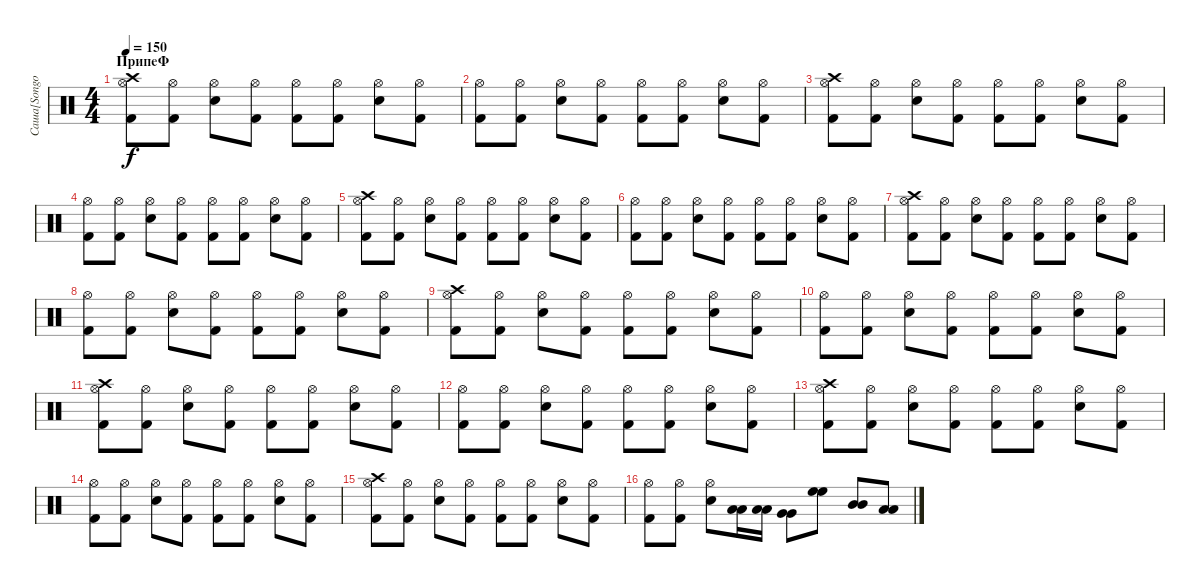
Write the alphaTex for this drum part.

\track ("Саша[Songo]" "Саша[Songo") {instrument percussion}
\staff {score}
\articulation defaults
\ts (4 4)
\section ("" "ПрипеФ")
\tempo 150
\clef neutral
\ks c
("Crash high (hit)" "Hi-Hat (open)" "Kick (hit) 2").8{dy f} ("Hi-Hat (open)" "Kick (hit) 2").8 ("Hi-Hat (open)" "Snare (hit) 2").8 ("Hi-Hat (open)" "Kick (hit) 2").8 ("Hi-Hat (open)" "Kick (hit) 2").8 ("Hi-Hat (open)" "Kick (hit) 2").8 ("Hi-Hat (open)" "Snare (hit) 2").8 ("Hi-Hat (open)" "Kick (hit) 2").8 |
("Hi-Hat (open)" "Kick (hit) 2").8 ("Hi-Hat (open)" "Kick (hit) 2").8 ("Hi-Hat (open)" "Snare (hit) 2").8 ("Hi-Hat (open)" "Kick (hit) 2").8 ("Hi-Hat (open)" "Kick (hit) 2").8 ("Hi-Hat (open)" "Kick (hit) 2").8 ("Hi-Hat (open)" "Snare (hit) 2").8 ("Hi-Hat (open)" "Kick (hit) 2").8 |
("Crash high (hit)" "Hi-Hat (open)" "Kick (hit) 2").8 ("Hi-Hat (open)" "Kick (hit) 2").8 ("Hi-Hat (open)" "Snare (hit) 2").8 ("Hi-Hat (open)" "Kick (hit) 2").8 ("Hi-Hat (open)" "Kick (hit) 2").8 ("Hi-Hat (open)" "Kick (hit) 2").8 ("Hi-Hat (open)" "Snare (hit) 2").8 ("Hi-Hat (open)" "Kick (hit) 2").8 |
("Hi-Hat (open)" "Kick (hit) 2").8 ("Hi-Hat (open)" "Kick (hit) 2").8 ("Hi-Hat (open)" "Snare (hit) 2").8 ("Hi-Hat (open)" "Kick (hit) 2").8 ("Hi-Hat (open)" "Kick (hit) 2").8 ("Hi-Hat (open)" "Kick (hit) 2").8 ("Hi-Hat (open)" "Snare (hit) 2").8 ("Hi-Hat (open)" "Kick (hit) 2").8 |
("Crash high (hit)" "Hi-Hat (open)" "Kick (hit) 2").8 ("Hi-Hat (open)" "Kick (hit) 2").8 ("Hi-Hat (open)" "Snare (hit) 2").8 ("Hi-Hat (open)" "Kick (hit) 2").8 ("Hi-Hat (open)" "Kick (hit) 2").8 ("Hi-Hat (open)" "Kick (hit) 2").8 ("Hi-Hat (open)" "Snare (hit) 2").8 ("Hi-Hat (open)" "Kick (hit) 2").8 |
("Hi-Hat (open)" "Kick (hit) 2").8 ("Hi-Hat (open)" "Kick (hit) 2").8 ("Hi-Hat (open)" "Snare (hit) 2").8 ("Hi-Hat (open)" "Kick (hit) 2").8 ("Hi-Hat (open)" "Kick (hit) 2").8 ("Hi-Hat (open)" "Kick (hit) 2").8 ("Hi-Hat (open)" "Snare (hit) 2").8 ("Hi-Hat (open)" "Kick (hit) 2").8 |
("Crash high (hit)" "Hi-Hat (open)" "Kick (hit) 2").8 ("Hi-Hat (open)" "Kick (hit) 2").8 ("Hi-Hat (open)" "Snare (hit) 2").8 ("Hi-Hat (open)" "Kick (hit) 2").8 ("Hi-Hat (open)" "Kick (hit) 2").8 ("Hi-Hat (open)" "Kick (hit) 2").8 ("Hi-Hat (open)" "Snare (hit) 2").8 ("Hi-Hat (open)" "Kick (hit) 2").8 |
("Hi-Hat (open)" "Kick (hit) 2").8 ("Hi-Hat (open)" "Kick (hit) 2").8 ("Hi-Hat (open)" "Snare (hit) 2").8 ("Hi-Hat (open)" "Kick (hit) 2").8 ("Hi-Hat (open)" "Kick (hit) 2").8 ("Hi-Hat (open)" "Kick (hit) 2").8 ("Hi-Hat (open)" "Snare (hit) 2").8 ("Hi-Hat (open)" "Kick (hit) 2").8 |
("Crash high (hit)" "Hi-Hat (open)" "Kick (hit) 2").8 ("Hi-Hat (open)" "Kick (hit) 2").8 ("Hi-Hat (open)" "Snare (hit) 2").8 ("Hi-Hat (open)" "Kick (hit) 2").8 ("Hi-Hat (open)" "Kick (hit) 2").8 ("Hi-Hat (open)" "Kick (hit) 2").8 ("Hi-Hat (open)" "Snare (hit) 2").8 ("Hi-Hat (open)" "Kick (hit) 2").8 |
("Hi-Hat (open)" "Kick (hit) 2").8 ("Hi-Hat (open)" "Kick (hit) 2").8 ("Hi-Hat (open)" "Snare (hit) 2").8 ("Hi-Hat (open)" "Kick (hit) 2").8 ("Hi-Hat (open)" "Kick (hit) 2").8 ("Hi-Hat (open)" "Kick (hit) 2").8 ("Hi-Hat (open)" "Snare (hit) 2").8 ("Hi-Hat (open)" "Kick (hit) 2").8 |
("Crash high (hit)" "Hi-Hat (open)" "Kick (hit) 2").8 ("Hi-Hat (open)" "Kick (hit) 2").8 ("Hi-Hat (open)" "Snare (hit) 2").8 ("Hi-Hat (open)" "Kick (hit) 2").8 ("Hi-Hat (open)" "Kick (hit) 2").8 ("Hi-Hat (open)" "Kick (hit) 2").8 ("Hi-Hat (open)" "Snare (hit) 2").8 ("Hi-Hat (open)" "Kick (hit) 2").8 |
("Hi-Hat (open)" "Kick (hit) 2").8 ("Hi-Hat (open)" "Kick (hit) 2").8 ("Hi-Hat (open)" "Snare (hit) 2").8 ("Hi-Hat (open)" "Kick (hit) 2").8 ("Hi-Hat (open)" "Kick (hit) 2").8 ("Hi-Hat (open)" "Kick (hit) 2").8 ("Hi-Hat (open)" "Snare (hit) 2").8 ("Hi-Hat (open)" "Kick (hit) 2").8 |
("Crash high (hit)" "Hi-Hat (open)" "Kick (hit) 2").8 ("Hi-Hat (open)" "Kick (hit) 2").8 ("Hi-Hat (open)" "Snare (hit) 2").8 ("Hi-Hat (open)" "Kick (hit) 2").8 ("Hi-Hat (open)" "Kick (hit) 2").8 ("Hi-Hat (open)" "Kick (hit) 2").8 ("Hi-Hat (open)" "Snare (hit) 2").8 ("Hi-Hat (open)" "Kick (hit) 2").8 |
("Hi-Hat (open)" "Kick (hit) 2").8 ("Hi-Hat (open)" "Kick (hit) 2").8 ("Hi-Hat (open)" "Snare (hit) 2").8 ("Hi-Hat (open)" "Kick (hit) 2").8 ("Hi-Hat (open)" "Kick (hit) 2").8 ("Hi-Hat (open)" "Kick (hit) 2").8 ("Hi-Hat (open)" "Snare (hit) 2").8 ("Hi-Hat (open)" "Kick (hit) 2").8 |
("Crash high (hit)" "Hi-Hat (open)" "Kick (hit) 2").8 ("Hi-Hat (open)" "Kick (hit) 2").8 ("Hi-Hat (open)" "Snare (hit) 2").8 ("Hi-Hat (open)" "Kick (hit) 2").8 ("Hi-Hat (open)" "Kick (hit) 2").8 ("Hi-Hat (open)" "Kick (hit) 2").8 ("Hi-Hat (open)" "Snare (hit) 2").8 ("Hi-Hat (open)" "Kick (hit) 2").8 |
("Hi-Hat (open)" "Kick (hit) 2").8 ("Hi-Hat (open)" "Kick (hit) 2").8 ("Hi-Hat (open)" "Electric Snare (hit)").8 ("Low Floor Tom (hit)" "Low Floor Tom (hit)").16{bd 60} ("Low Floor Tom (hit)" "Low Floor Tom (hit)").16{bd 60} ("Very Low Tom (hit)" "Very Low Tom (hit)").8{bd 60} ("High Floor Tom (hit)" "High Floor Tom (hit)").8{bd 60} ("Mid Tom (hit)" "Mid Tom (hit)").8{bd 60} ("Low Tom (hit)" "Low Tom (hit)").8{bd 60}
